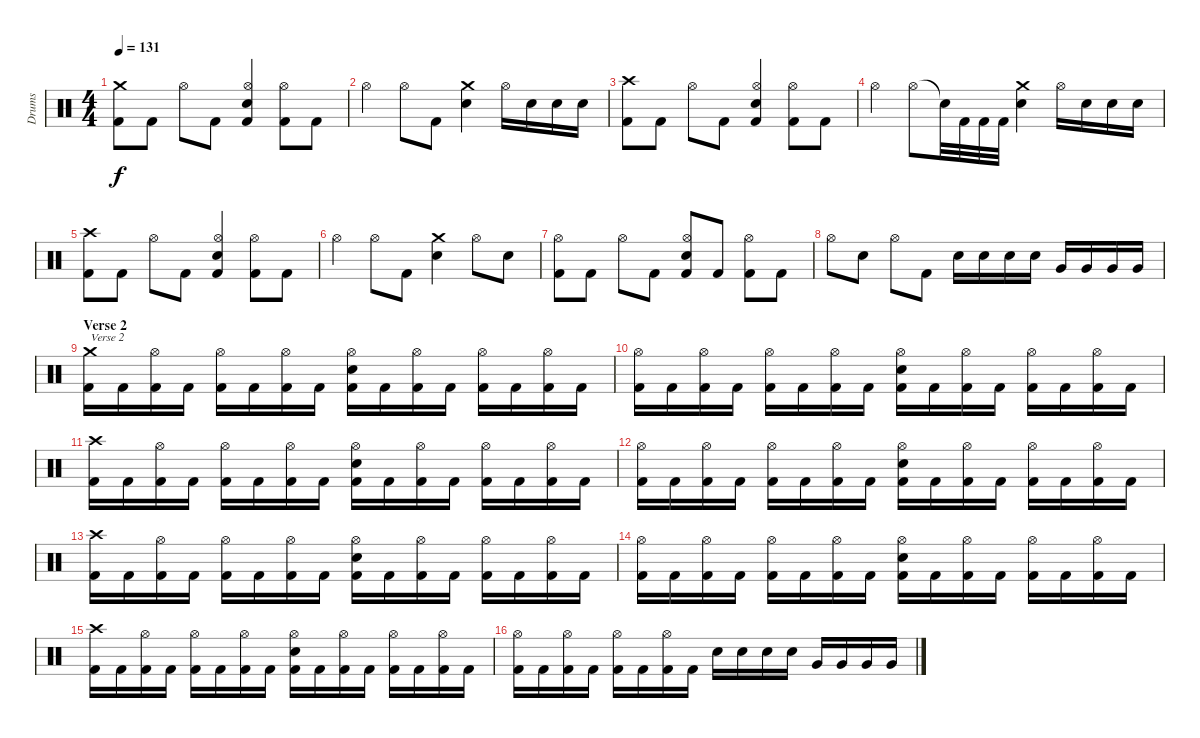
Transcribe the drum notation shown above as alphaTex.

\track ("Drums" "Drums") {instrument percussion}
\staff {score}
\articulation defaults
\ts (4 4)
\tempo 131
\clef neutral
\ks c
("Crash medium (hit)" "Kick (hit) 2").8{dy f} "Kick (hit) 2".8 "Hi-Hat (open)".8 "Kick (hit) 2".8 ("Hi-Hat (open)" "Electric Snare (hit)" "Kick (hit) 2").4 ("Hi-Hat (open)" "Kick (hit) 2").8 "Kick (hit) 2".8 |
"Hi-Hat (open)".4 "Hi-Hat (open)".8 "Kick (hit) 2".8 ("Crash medium (hit)" "Electric Snare (hit)").4 "Hi-Hat (open)".16 "Electric Snare (hit)".16 "Electric Snare (hit)".16 "Electric Snare (hit)".16 |
("Crash high (hit)" "Kick (hit) 2").8 "Kick (hit) 2".8 "Hi-Hat (open)".8 "Kick (hit) 2".8 ("Hi-Hat (open)" "Electric Snare (hit)" "Kick (hit) 2").4 ("Hi-Hat (open)" "Kick (hit) 2").8 "Kick (hit) 2".8 |
"Hi-Hat (open)".4 "Hi-Hat (open)".8 "Snare (hit)"{t}.32 "Kick (hit) 2".32 "Kick (hit) 2".32 "Kick (hit) 2".32 ("Crash medium (hit)" "Electric Snare (hit)").4 "Hi-Hat (open)".16 "Electric Snare (hit)".16 "Electric Snare (hit)".16 "Electric Snare (hit)".16 |
("Crash high (hit)" "Kick (hit) 2").8 "Kick (hit) 2".8 "Hi-Hat (open)".8 "Kick (hit) 2".8 ("Hi-Hat (open)" "Electric Snare (hit)" "Kick (hit) 2").4 ("Hi-Hat (open)" "Kick (hit) 2").8 "Kick (hit) 2".8 |
"Hi-Hat (open)".4 "Hi-Hat (open)".8 "Kick (hit) 2".8 ("Crash medium (hit)" "Electric Snare (hit)").4 "Hi-Hat (open)".8 "Electric Snare (hit)".8 |
("Hi-Hat (open)" "Kick (hit) 2").8 "Kick (hit) 2".8 "Hi-Hat (open)".8 "Kick (hit) 2".8 ("Hi-Hat (open)" "Electric Snare (hit)" "Kick (hit) 2").8 "Kick (hit) 2".8 ("Hi-Hat (open)" "Kick (hit) 2").8 "Kick (hit) 2".8 |
"Hi-Hat (open)".8 "Electric Snare (hit)".8 "Hi-Hat (open)".8 "Kick (hit) 2".8 "Electric Snare (hit)".16 "Electric Snare (hit)".16 "Electric Snare (hit)".16 "Electric Snare (hit)".16 "Very Low Tom (hit)".16 "Very Low Tom (hit)".16 "Very Low Tom (hit)".16 "Very Low Tom (hit)".16 |
\section ("" "Verse 2")
("Crash medium (hit)" "Kick (hit) 2").16{txt "Verse 2"} "Kick (hit) 2".16 ("Hi-Hat (open)" "Kick (hit) 2").16 "Kick (hit) 2".16 ("Hi-Hat (open)" "Kick (hit) 2").16 "Kick (hit) 2".16 ("Hi-Hat (open)" "Kick (hit) 2").16 "Kick (hit) 2".16 ("Hi-Hat (open)" "Electric Snare (hit)" "Kick (hit) 2").16 "Kick (hit) 2".16 ("Hi-Hat (open)" "Kick (hit) 2").16 "Kick (hit) 2".16 ("Hi-Hat (open)" "Kick (hit) 2").16 "Kick (hit) 2".16 ("Hi-Hat (open)" "Kick (hit) 2").16 "Kick (hit) 2".16 |
("Hi-Hat (open)" "Kick (hit) 2").16 "Kick (hit) 2".16 ("Hi-Hat (open)" "Kick (hit) 2").16 "Kick (hit) 2".16 ("Hi-Hat (open)" "Kick (hit) 2").16 "Kick (hit) 2".16 ("Hi-Hat (open)" "Kick (hit) 2").16 "Kick (hit) 2".16 ("Hi-Hat (open)" "Electric Snare (hit)" "Kick (hit) 2").16 "Kick (hit) 2".16 ("Hi-Hat (open)" "Kick (hit) 2").16 "Kick (hit) 2".16 ("Hi-Hat (open)" "Kick (hit) 2").16 "Kick (hit) 2".16 ("Hi-Hat (open)" "Kick (hit) 2").16 "Kick (hit) 2".16 |
("Crash high (hit)" "Kick (hit) 2").16 "Kick (hit) 2".16 ("Hi-Hat (open)" "Kick (hit) 2").16 "Kick (hit) 2".16 ("Hi-Hat (open)" "Kick (hit) 2").16 "Kick (hit) 2".16 ("Hi-Hat (open)" "Kick (hit) 2").16 "Kick (hit) 2".16 ("Hi-Hat (open)" "Electric Snare (hit)" "Kick (hit) 2").16 "Kick (hit) 2".16 ("Hi-Hat (open)" "Kick (hit) 2").16 "Kick (hit) 2".16 ("Hi-Hat (open)" "Kick (hit) 2").16 "Kick (hit) 2".16 ("Hi-Hat (open)" "Kick (hit) 2").16 "Kick (hit) 2".16 |
("Hi-Hat (open)" "Kick (hit) 2").16 "Kick (hit) 2".16 ("Hi-Hat (open)" "Kick (hit) 2").16 "Kick (hit) 2".16 ("Hi-Hat (open)" "Kick (hit) 2").16 "Kick (hit) 2".16 ("Hi-Hat (open)" "Kick (hit) 2").16 "Kick (hit) 2".16 ("Hi-Hat (open)" "Electric Snare (hit)" "Kick (hit) 2").16 "Kick (hit) 2".16 ("Hi-Hat (open)" "Kick (hit) 2").16 "Kick (hit) 2".16 ("Hi-Hat (open)" "Kick (hit) 2").16 "Kick (hit) 2".16 ("Hi-Hat (open)" "Kick (hit) 2").16 "Kick (hit) 2".16 |
("Crash high (hit)" "Kick (hit) 2").16 "Kick (hit) 2".16 ("Hi-Hat (open)" "Kick (hit) 2").16 "Kick (hit) 2".16 ("Hi-Hat (open)" "Kick (hit) 2").16 "Kick (hit) 2".16 ("Hi-Hat (open)" "Kick (hit) 2").16 "Kick (hit) 2".16 ("Hi-Hat (open)" "Electric Snare (hit)" "Kick (hit) 2").16 "Kick (hit) 2".16 ("Hi-Hat (open)" "Kick (hit) 2").16 "Kick (hit) 2".16 ("Hi-Hat (open)" "Kick (hit) 2").16 "Kick (hit) 2".16 ("Hi-Hat (open)" "Kick (hit) 2").16 "Kick (hit) 2".16 |
("Hi-Hat (open)" "Kick (hit) 2").16 "Kick (hit) 2".16 ("Hi-Hat (open)" "Kick (hit) 2").16 "Kick (hit) 2".16 ("Hi-Hat (open)" "Kick (hit) 2").16 "Kick (hit) 2".16 ("Hi-Hat (open)" "Kick (hit) 2").16 "Kick (hit) 2".16 ("Hi-Hat (open)" "Electric Snare (hit)" "Kick (hit) 2").16 "Kick (hit) 2".16 ("Hi-Hat (open)" "Kick (hit) 2").16 "Kick (hit) 2".16 ("Hi-Hat (open)" "Kick (hit) 2").16 "Kick (hit) 2".16 ("Hi-Hat (open)" "Kick (hit) 2").16 "Kick (hit) 2".16 |
("Crash high (hit)" "Kick (hit) 2").16 "Kick (hit) 2".16 ("Hi-Hat (open)" "Kick (hit) 2").16 "Kick (hit) 2".16 ("Hi-Hat (open)" "Kick (hit) 2").16 "Kick (hit) 2".16 ("Hi-Hat (open)" "Kick (hit) 2").16 "Kick (hit) 2".16 ("Hi-Hat (open)" "Electric Snare (hit)" "Kick (hit) 2").16 "Kick (hit) 2".16 ("Hi-Hat (open)" "Kick (hit) 2").16 "Kick (hit) 2".16 ("Hi-Hat (open)" "Kick (hit) 2").16 "Kick (hit) 2".16 ("Hi-Hat (open)" "Kick (hit) 2").16 "Kick (hit) 2".16 |
("Hi-Hat (open)" "Kick (hit) 2").16 "Kick (hit) 2".16 ("Hi-Hat (open)" "Kick (hit) 2").16 "Kick (hit) 2".16 ("Hi-Hat (open)" "Kick (hit) 2").16 "Kick (hit) 2".16 ("Hi-Hat (open)" "Kick (hit) 2").16 "Kick (hit) 2".16 "Electric Snare (hit)".16 "Electric Snare (hit)".16 "Electric Snare (hit)".16 "Electric Snare (hit)".16 "Very Low Tom (hit)".16 "Very Low Tom (hit)".16 "Very Low Tom (hit)".16 "Very Low Tom (hit)".16
